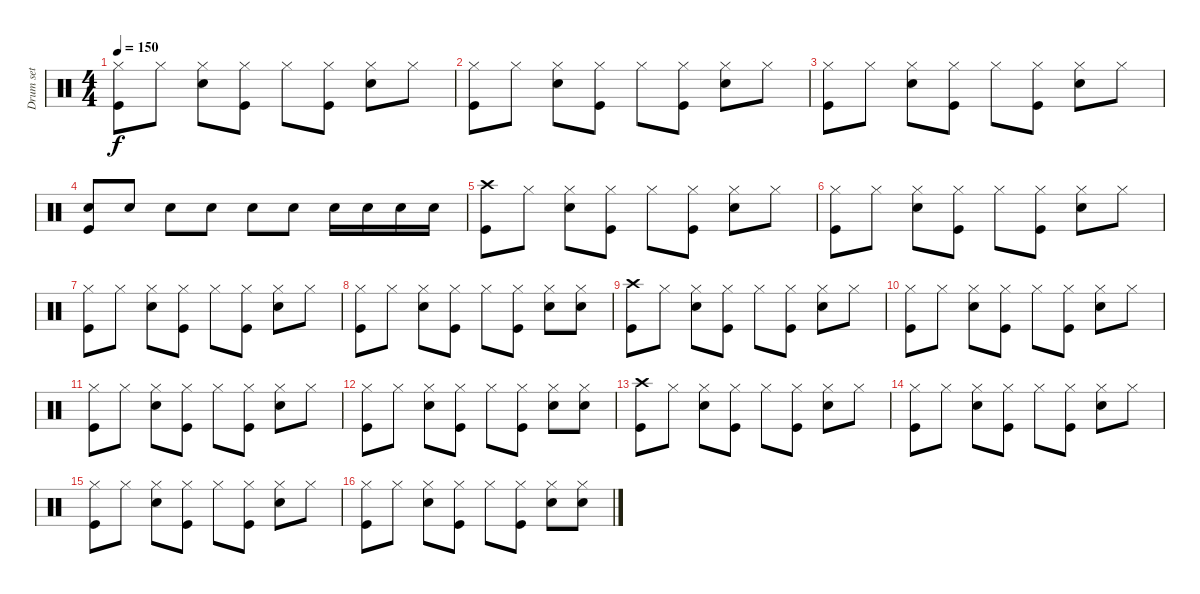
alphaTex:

\track ("Drum set" "Drum set") {instrument percussion}
\staff {score}
\articulation defaults
\ts (4 4)
\tempo 150
\clef neutral
\ks c
("Hi-Hat (closed)" "Kick (hit)").8{dy f} "Hi-Hat (closed)".8 ("Hi-Hat (closed)" "Snare (hit) 2").8 ("Hi-Hat (closed)" "Kick (hit)").8 "Hi-Hat (closed)".8 ("Hi-Hat (closed)" "Kick (hit)").8 ("Hi-Hat (closed)" "Snare (hit) 2").8 "Hi-Hat (closed)".8 |
("Hi-Hat (closed)" "Kick (hit)").8 "Hi-Hat (closed)".8 ("Hi-Hat (closed)" "Snare (hit) 2").8 ("Hi-Hat (closed)" "Kick (hit)").8 "Hi-Hat (closed)".8 ("Hi-Hat (closed)" "Kick (hit)").8 ("Hi-Hat (closed)" "Snare (hit) 2").8 "Hi-Hat (closed)".8 |
("Hi-Hat (closed)" "Kick (hit)").8 "Hi-Hat (closed)".8 ("Hi-Hat (closed)" "Snare (hit) 2").8 ("Hi-Hat (closed)" "Kick (hit)").8 "Hi-Hat (closed)".8 ("Hi-Hat (closed)" "Kick (hit)").8 ("Hi-Hat (closed)" "Snare (hit) 2").8 "Hi-Hat (closed)".8 |
("Snare (hit) 2" "Kick (hit)").8 "Snare (hit) 2".8 "Snare (hit) 2".8 "Snare (hit) 2".8 "Snare (hit) 2".8 "Snare (hit) 2".8 "Snare (hit) 2".16 "Snare (hit) 2".16 "Snare (hit) 2".16 "Snare (hit) 2".16 |
("Crash high (hit)" "Kick (hit)").8 "Hi-Hat (closed)".8 ("Hi-Hat (closed)" "Snare (hit) 2").8 ("Hi-Hat (closed)" "Kick (hit)").8 "Hi-Hat (closed)".8 ("Hi-Hat (closed)" "Kick (hit)").8 ("Hi-Hat (closed)" "Snare (hit) 2").8 "Hi-Hat (closed)".8 |
("Hi-Hat (closed)" "Kick (hit)").8 "Hi-Hat (closed)".8 ("Hi-Hat (closed)" "Snare (hit) 2").8 ("Hi-Hat (closed)" "Kick (hit)").8 "Hi-Hat (closed)".8 ("Hi-Hat (closed)" "Kick (hit)").8 ("Hi-Hat (closed)" "Snare (hit) 2").8 "Hi-Hat (closed)".8 |
("Hi-Hat (closed)" "Kick (hit)").8 "Hi-Hat (closed)".8 ("Hi-Hat (closed)" "Snare (hit) 2").8 ("Hi-Hat (closed)" "Kick (hit)").8 "Hi-Hat (closed)".8 ("Hi-Hat (closed)" "Kick (hit)").8 ("Hi-Hat (closed)" "Snare (hit) 2").8 "Hi-Hat (closed)".8 |
("Hi-Hat (closed)" "Kick (hit)").8 "Hi-Hat (closed)".8 ("Hi-Hat (closed)" "Snare (hit) 2").8 ("Hi-Hat (closed)" "Kick (hit)").8 "Hi-Hat (closed)".8 ("Hi-Hat (closed)" "Kick (hit)").8 ("Hi-Hat (closed)" "Snare (hit) 2").8 ("Hi-Hat (closed)" "Snare (hit) 2").8 |
("Crash high (hit)" "Kick (hit)").8 "Hi-Hat (closed)".8 ("Hi-Hat (closed)" "Snare (hit) 2").8 ("Hi-Hat (closed)" "Kick (hit)").8 "Hi-Hat (closed)".8 ("Hi-Hat (closed)" "Kick (hit)").8 ("Hi-Hat (closed)" "Snare (hit) 2").8 "Hi-Hat (closed)".8 |
("Hi-Hat (closed)" "Kick (hit)").8 "Hi-Hat (closed)".8 ("Hi-Hat (closed)" "Snare (hit) 2").8 ("Hi-Hat (closed)" "Kick (hit)").8 "Hi-Hat (closed)".8 ("Hi-Hat (closed)" "Kick (hit)").8 ("Hi-Hat (closed)" "Snare (hit) 2").8 "Hi-Hat (closed)".8 |
("Hi-Hat (closed)" "Kick (hit)").8 "Hi-Hat (closed)".8 ("Hi-Hat (closed)" "Snare (hit) 2").8 ("Hi-Hat (closed)" "Kick (hit)").8 "Hi-Hat (closed)".8 ("Hi-Hat (closed)" "Kick (hit)").8 ("Hi-Hat (closed)" "Snare (hit) 2").8 "Hi-Hat (closed)".8 |
("Hi-Hat (closed)" "Kick (hit)").8 "Hi-Hat (closed)".8 ("Hi-Hat (closed)" "Snare (hit) 2").8 ("Hi-Hat (closed)" "Kick (hit)").8 "Hi-Hat (closed)".8 ("Hi-Hat (closed)" "Kick (hit)").8 ("Hi-Hat (closed)" "Snare (hit) 2").8 ("Hi-Hat (closed)" "Snare (hit) 2").8 |
("Crash high (hit)" "Kick (hit)").8 "Hi-Hat (closed)".8 ("Hi-Hat (closed)" "Snare (hit) 2").8 ("Hi-Hat (closed)" "Kick (hit)").8 "Hi-Hat (closed)".8 ("Hi-Hat (closed)" "Kick (hit)").8 ("Hi-Hat (closed)" "Snare (hit) 2").8 "Hi-Hat (closed)".8 |
("Hi-Hat (closed)" "Kick (hit)").8 "Hi-Hat (closed)".8 ("Hi-Hat (closed)" "Snare (hit) 2").8 ("Hi-Hat (closed)" "Kick (hit)").8 "Hi-Hat (closed)".8 ("Hi-Hat (closed)" "Kick (hit)").8 ("Hi-Hat (closed)" "Snare (hit) 2").8 "Hi-Hat (closed)".8 |
("Hi-Hat (closed)" "Kick (hit)").8 "Hi-Hat (closed)".8 ("Hi-Hat (closed)" "Snare (hit) 2").8 ("Hi-Hat (closed)" "Kick (hit)").8 "Hi-Hat (closed)".8 ("Hi-Hat (closed)" "Kick (hit)").8 ("Hi-Hat (closed)" "Snare (hit) 2").8 "Hi-Hat (closed)".8 |
("Hi-Hat (closed)" "Kick (hit)").8 "Hi-Hat (closed)".8 ("Hi-Hat (closed)" "Snare (hit) 2").8 ("Hi-Hat (closed)" "Kick (hit)").8 "Hi-Hat (closed)".8 ("Hi-Hat (closed)" "Kick (hit)").8 ("Hi-Hat (closed)" "Snare (hit) 2").8 ("Hi-Hat (closed)" "Snare (hit) 2").8
